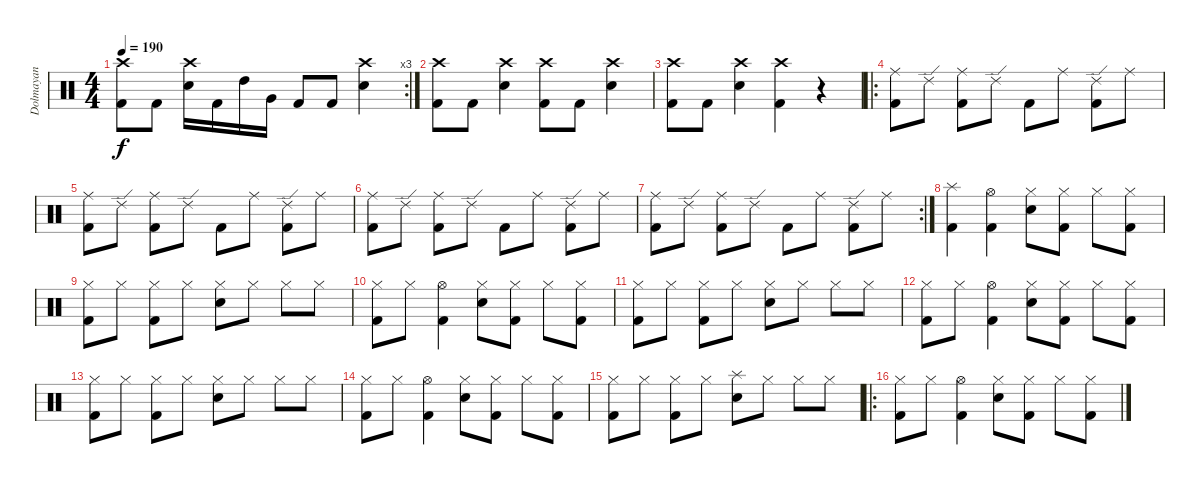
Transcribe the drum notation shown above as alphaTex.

\track ("Dolmayan" "Dolmayan") {instrument percussion}
\staff {score}
\articulation defaults
\rc 3
\ts (4 4)
\tempo 190
\clef neutral
\ks c
("Crash high (hit)" "Kick (hit) 2").8{dy f} "Kick (hit) 2".8 ("Crash high (hit)" "Electric Snare (hit)").16 "Kick (hit) 2".16 "High Tom (hit)".16 "Very Low Tom (hit)".16 "Kick (hit) 2".8 "Kick (hit) 2".8 ("Crash high (hit)" "Electric Snare (hit)").4 |
("Crash high (hit)" "Kick (hit) 2").8 "Kick (hit) 2".8 ("Crash high (hit)" "Electric Snare (hit)").4 ("Crash high (hit)" "Kick (hit) 2").8 "Kick (hit) 2".8 ("Crash high (hit)" "Electric Snare (hit)").4 |
("Crash high (hit)" "Kick (hit) 2").8 "Kick (hit) 2".8 ("Crash high (hit)" "Electric Snare (hit)").4 ("Crash high (hit)" "Kick (hit) 2").4 r.4 |
\ro
("Ride (middle)" "Kick (hit) 2").8 "Ride (edge) 2".8 ("Ride (middle)" "Kick (hit) 2").8 "Ride (edge) 2".8 "Kick (hit) 2".8 "Ride (middle)".8 ("Ride (edge) 2" "Kick (hit) 2").8 "Ride (middle)".8 |
("Ride (middle)" "Kick (hit) 2").8 "Ride (edge) 2".8 ("Ride (middle)" "Kick (hit) 2").8 "Ride (edge) 2".8 "Kick (hit) 2".8 "Ride (middle)".8 ("Ride (edge) 2" "Kick (hit) 2").8 "Ride (middle)".8 |
("Ride (middle)" "Kick (hit) 2").8 "Ride (edge) 2".8 ("Ride (middle)" "Kick (hit) 2").8 "Ride (edge) 2".8 "Kick (hit) 2".8 "Ride (middle)".8 ("Ride (edge) 2" "Kick (hit) 2").8 "Ride (middle)".8 |
\rc 2
("Ride (middle)" "Kick (hit) 2").8 "Ride (edge) 2".8 ("Ride (middle)" "Kick (hit) 2").8 "Ride (edge) 2".8 "Kick (hit) 2".8 "Ride (middle)".8 ("Ride (edge) 2" "Kick (hit) 2").8 "Ride (middle)".8 |
("Splash (hit)" "Kick (hit) 2").4 ("Hi-Hat (open)" "Kick (hit) 2").4 ("Hi-Hat (closed)" "Electric Snare (hit)").8 ("Hi-Hat (closed)" "Kick (hit) 2").8 "Hi-Hat (closed)".8 ("Hi-Hat (closed)" "Kick (hit) 2").8 |
("Hi-Hat (closed)" "Kick (hit) 2").8 "Hi-Hat (closed)".8 ("Hi-Hat (closed)" "Kick (hit) 2").8 "Hi-Hat (closed)".8 ("Hi-Hat (closed)" "Electric Snare (hit)").8 "Hi-Hat (closed)".8 "Hi-Hat (closed)".8 "Hi-Hat (closed)".8 |
("Hi-Hat (closed)" "Kick (hit) 2").8 "Hi-Hat (closed)".8 ("Hi-Hat (open)" "Kick (hit) 2").4 ("Hi-Hat (closed)" "Electric Snare (hit)").8 ("Hi-Hat (closed)" "Kick (hit) 2").8 "Hi-Hat (closed)".8 ("Hi-Hat (closed)" "Kick (hit) 2").8 |
("Hi-Hat (closed)" "Kick (hit) 2").8 "Hi-Hat (closed)".8 ("Hi-Hat (closed)" "Kick (hit) 2").8 "Hi-Hat (closed)".8 ("Hi-Hat (closed)" "Electric Snare (hit)").8 "Hi-Hat (closed)".8 "Hi-Hat (closed)".8 "Hi-Hat (closed)".8 |
("Hi-Hat (closed)" "Kick (hit) 2").8 "Hi-Hat (closed)".8 ("Hi-Hat (open)" "Kick (hit) 2").4 ("Hi-Hat (closed)" "Electric Snare (hit)").8 ("Hi-Hat (closed)" "Kick (hit) 2").8 "Hi-Hat (closed)".8 ("Hi-Hat (closed)" "Kick (hit) 2").8 |
("Hi-Hat (closed)" "Kick (hit) 2").8 "Hi-Hat (closed)".8 ("Hi-Hat (closed)" "Kick (hit) 2").8 "Hi-Hat (closed)".8 ("Hi-Hat (closed)" "Electric Snare (hit)").8 "Hi-Hat (closed)".8 "Hi-Hat (closed)".8 "Hi-Hat (closed)".8 |
("Hi-Hat (closed)" "Kick (hit) 2").8 "Hi-Hat (closed)".8 ("Hi-Hat (open)" "Kick (hit) 2").4 ("Hi-Hat (closed)" "Electric Snare (hit)").8 ("Hi-Hat (closed)" "Kick (hit) 2").8 "Hi-Hat (closed)".8 ("Hi-Hat (closed)" "Kick (hit) 2").8 |
("Hi-Hat (closed)" "Kick (hit) 2").8 "Hi-Hat (closed)".8 ("Hi-Hat (closed)" "Kick (hit) 2").8 "Hi-Hat (closed)".8 ("Splash (hit)" "Electric Snare (hit)").8 "Hi-Hat (closed)".8 "Hi-Hat (closed)".8 "Hi-Hat (closed)".8 |
\ro
("Hi-Hat (closed)" "Kick (hit) 2").8 "Hi-Hat (closed)".8 ("Hi-Hat (open)" "Kick (hit) 2").4 ("Hi-Hat (closed)" "Electric Snare (hit)").8 ("Hi-Hat (closed)" "Kick (hit) 2").8 "Hi-Hat (closed)".8 ("Hi-Hat (closed)" "Kick (hit) 2").8
